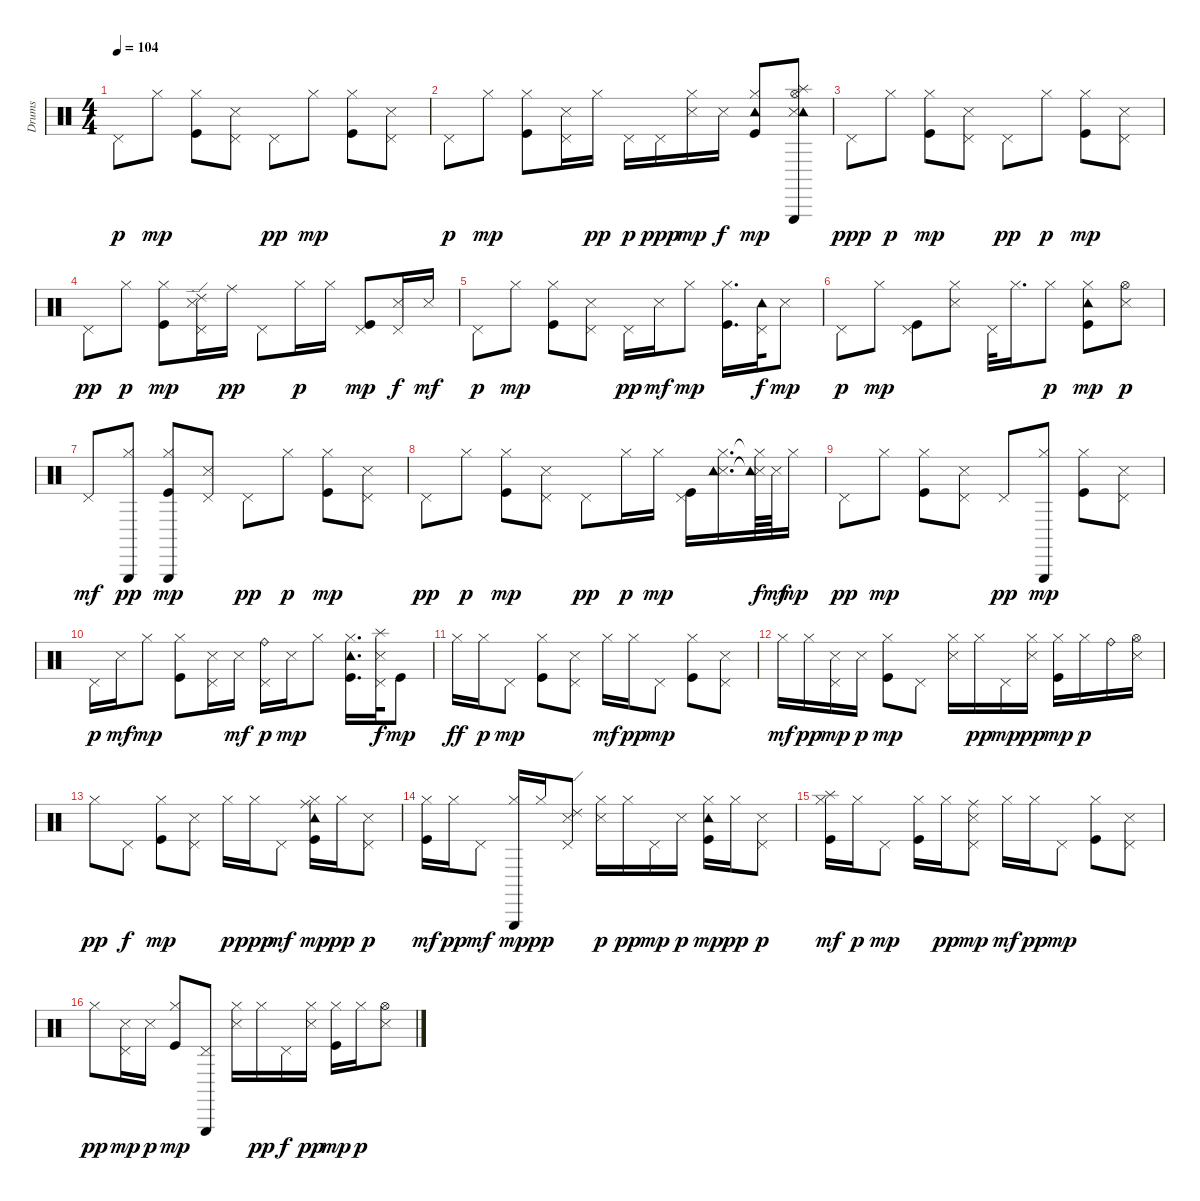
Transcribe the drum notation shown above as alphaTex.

\track ("Drums" "Drums") {instrument percussion}
\staff {score}
\articulation defaults
\ts (4 4)
\tempo 104
\clef neutral
\ks c "Pedal Hi-Hat (hit)".8{dy p} "Hi-Hat (closed)".8{dy mp}
("Hi-Hat (closed)" "Kick (hit)").8 ("Pedal Hi-Hat (hit)" "Snare (side stick) 3").8 "Pedal Hi-Hat (hit)".8{dy pp} "Hi-Hat (closed)".8{dy mp} ("Hi-Hat (closed)" "Kick (hit)").8 ("Pedal Hi-Hat (hit)" "Snare (side stick) 3").8 |
"Pedal Hi-Hat (hit)".8{dy p} "Hi-Hat (closed)".8{dy mp} ("Hi-Hat (closed)" "Kick (hit)").8 ("Pedal Hi-Hat (hit)" "Snare (side stick) 3").16 "Hi-Hat (closed)".16{dy pp} "Pedal Hi-Hat (hit)".16{dy p} "Pedal Hi-Hat (hit)".16{dy ppp} ("Hi-Hat (closed)" "Snare (side stick) 3").16{dy mp} "Snare (side stick) 3".16{dy f} ("Hi-Hat (closed)" "Tambourine (hit)" "Kick (hit)").8{dy mp} ("Hi-Hat (open)" "Splash (hit)" "Snare (side stick) 3" "Tambourine (hit)" "Triangle (hit)").8 |
"Pedal Hi-Hat (hit)".8{dy ppp} "Hi-Hat (closed)".8{dy p} ("Hi-Hat (closed)" "Kick (hit)").8{dy mp} ("Pedal Hi-Hat (hit)" "Snare (side stick) 3").8 "Pedal Hi-Hat (hit)".8{dy pp} "Hi-Hat (closed)".8{dy p} ("Hi-Hat (closed)" "Kick (hit)").8{dy mp} ("Pedal Hi-Hat (hit)" "Snare (side stick) 3").8 |
"Pedal Hi-Hat (hit)".8{dy pp} "Hi-Hat (closed)".8{dy p} ("Hi-Hat (closed)" "Kick (hit)").8{dy mp} ("Pedal Hi-Hat (hit)" "Ride (edge) 2" "Snare (side stick) 3").16 "Ride (middle)".16{dy pp} "Pedal Hi-Hat (hit)".8 "Hi-Hat (closed)".16{dy p} "Hi-Hat (closed)".16 ("Pedal Hi-Hat (hit)" "Kick (hit)").8{dy mp} ("Pedal Hi-Hat (hit)" "Snare (side stick) 3").16{dy f} "Snare (side stick) 3".16{dy mf} |
"Pedal Hi-Hat (hit)".8{dy p} "Hi-Hat (closed)".8{dy mp} ("Hi-Hat (closed)" "Kick (hit)").8 ("Pedal Hi-Hat (hit)" "Snare (side stick) 3").8 "Pedal Hi-Hat (hit)".16{dy pp} "Snare (side stick) 3".16{dy mf} "Hi-Hat (closed)".8{dy mp} ("Hi-Hat (closed)" "Kick (hit)").16{d} ("Pedal Hi-Hat (hit)" "Tambourine (hit)").32{dy f} "Snare (side stick) 3".8{dy mp} |
"Pedal Hi-Hat (hit)".8{dy p} "Hi-Hat (closed)".8{dy mp} ("Pedal Hi-Hat (hit)" "Kick (hit)").8 ("Hi-Hat (closed)" "Snare (side stick) 3").8 "Pedal Hi-Hat (hit)".32 "Hi-Hat (closed)".16{d} "Hi-Hat (closed)".8{dy p} ("Hi-Hat (closed)" "Tambourine (hit)" "Kick (hit)").8{dy mp} ("Hi-Hat (open)" "Snare (side stick) 3").8{dy p} |
"Pedal Hi-Hat (hit)".8{dy mf} ("Hi-Hat (closed)" "Triangle (hit)").8{dy pp} ("Hi-Hat (closed)" "Triangle (hit)" "Kick (hit)").8{dy mp} ("Pedal Hi-Hat (hit)" "Snare (side stick) 3").8 "Pedal Hi-Hat (hit)".8{dy pp} "Hi-Hat (closed)".8{dy p} ("Hi-Hat (closed)" "Kick (hit)").8{dy mp} ("Pedal Hi-Hat (hit)" "Snare (side stick) 3").8 |
"Pedal Hi-Hat (hit)".8{dy pp} "Hi-Hat (closed)".8{dy p} ("Hi-Hat (closed)" "Kick (hit)").8{dy mp} ("Pedal Hi-Hat (hit)" "Snare (side stick) 3").8 "Pedal Hi-Hat (hit)".8{dy pp} "Hi-Hat (closed)".16{dy p} "Hi-Hat (closed)".16{dy mp} ("Pedal Hi-Hat (hit)" "Kick (hit)").16 ("Hi-Hat (closed)" "Snare (side stick) 3" "Tambourine (hit)").16{d} ("Hi-Hat (closed)"{t} "Snare (side stick) 3"{t} "Tambourine (hit)"{t}).64{dy f} "Snare (side stick) 3".64{dy mf} "Hi-Hat (closed)".16{dy mp} |
"Pedal Hi-Hat (hit)".8{dy pp} "Hi-Hat (closed)".8{dy mp} ("Hi-Hat (closed)" "Kick (hit)").8 ("Pedal Hi-Hat (hit)" "Snare (side stick) 3").8 "Pedal Hi-Hat (hit)".8{dy pp} ("Hi-Hat (closed)" "Triangle (hit)").8{dy mp} ("Hi-Hat (closed)" "Kick (hit)").8 ("Pedal Hi-Hat (hit)" "Snare (side stick) 3").8 |
"Pedal Hi-Hat (hit)".16{dy p} "Snare (side stick) 3".16{dy mf} "Hi-Hat (closed)".8{dy mp} ("Hi-Hat (closed)" "Kick (hit)").8 ("Pedal Hi-Hat (hit)" "Snare (side stick) 3").16 "Snare (side stick) 3".16{dy mf} ("Pedal Hi-Hat (hit)" "Ride (bell)").16{dy p} "Snare (side stick) 3".16{dy mp} "Hi-Hat (closed)".8 ("Hi-Hat (closed)" "Tambourine (hit)" "Kick (hit)").16{d} ("Pedal Hi-Hat (hit)" "Splash (hit)" "Snare (side stick) 3").32{dy f} "Kick (hit)".8{dy mp} |
"Hi-Hat (closed)".16{dy ff} "Hi-Hat (closed)".16{dy p} "Pedal Hi-Hat (hit)".8{dy mp} ("Hi-Hat (closed)" "Kick (hit)").8 ("Pedal Hi-Hat (hit)" "Snare (side stick) 3").8 "Hi-Hat (closed)".16{dy mf} "Hi-Hat (closed)".16{dy pp} "Pedal Hi-Hat (hit)".8{dy mp} ("Hi-Hat (closed)" "Kick (hit)").8 ("Pedal Hi-Hat (hit)" "Snare (side stick) 3").8 |
"Hi-Hat (closed)".16{dy mf} "Hi-Hat (closed)".16{dy pp} ("Pedal Hi-Hat (hit)" "Snare (side stick) 3").16{dy mp} "Snare (side stick) 3".16{dy p} ("Hi-Hat (closed)" "Kick (hit)").8{dy mp} "Pedal Hi-Hat (hit)".8 ("Hi-Hat (closed)" "Snare (side stick) 3").16 "Hi-Hat (closed)".16{dy pp} "Pedal Hi-Hat (hit)".16{dy mp} ("Hi-Hat (closed)" "Snare (side stick) 3").16{dy pp} ("Hi-Hat (closed)" "Kick (hit)").16{dy mp} "Hi-Hat (closed)".16{dy p} "Ride (bell)".16 ("Hi-Hat (open)" "Snare (side stick) 3").16 |
"Hi-Hat (closed)".8{dy pp} "Pedal Hi-Hat (hit)".8{dy f} ("Hi-Hat (closed)" "Kick (hit)").8{dy mp} ("Pedal Hi-Hat (hit)" "Snare (side stick) 3").8 "Hi-Hat (closed)".16{dy p} "Hi-Hat (closed)".16{dy ppp} "Pedal Hi-Hat (hit)".8{dy mf} ("Hi-Hat (closed)" "Ride (middle)" "Tambourine (hit)" "Kick (hit)").16{dy mp} "Hi-Hat (closed)".16{dy pp} ("Pedal Hi-Hat (hit)" "Snare (side stick) 3").8{dy p} |
("Hi-Hat (closed)" "Kick (hit)").16{dy mf} "Hi-Hat (closed)".16{dy pp} "Pedal Hi-Hat (hit)".8{dy mf} ("Hi-Hat (closed)" "Triangle (hit)").16{dy mp} "Hi-Hat (closed)".16{dy pp} ("Pedal Hi-Hat (hit)" "Ride (edge) 2" "Snare (side stick) 3").8 ("Hi-Hat (closed)" "Snare (side stick) 3").16{dy p} "Hi-Hat (closed)".16{dy pp} "Pedal Hi-Hat (hit)".16{dy mp} "Snare (side stick) 3".16{dy p} ("Hi-Hat (closed)" "Tambourine (hit)" "Kick (hit)").16{dy mp} "Hi-Hat (closed)".16{dy pp} ("Pedal Hi-Hat (hit)" "Snare (side stick) 3").8{dy p} |
("Hi-Hat (closed)" "Splash (hit)" "Kick (hit)").16{dy mf} "Hi-Hat (closed)".16{dy p} "Pedal Hi-Hat (hit)".8{dy mp} ("Hi-Hat (closed)" "Kick (hit)").16 "Hi-Hat (closed)".16{dy pp} ("Pedal Hi-Hat (hit)" "Ride (middle)" "Snare (side stick) 3").8{dy mp} "Hi-Hat (closed)".16{dy mf} "Hi-Hat (closed)".16{dy pp} "Pedal Hi-Hat (hit)".8{dy mp} ("Hi-Hat (closed)" "Kick (hit)").8 ("Pedal Hi-Hat (hit)" "Snare (side stick) 3").8 |
"Hi-Hat (closed)".8{dy pp} ("Pedal Hi-Hat (hit)" "Snare (side stick) 3").16{dy mp} "Snare (side stick) 3".16{dy p} ("Hi-Hat (closed)" "Kick (hit)").8{dy mp} ("Pedal Hi-Hat (hit)" "Triangle (hit)").8 ("Hi-Hat (closed)" "Snare (side stick) 3").16 "Hi-Hat (closed)".16{dy pp} "Pedal Hi-Hat (hit)".16{dy f} ("Hi-Hat (closed)" "Snare (side stick) 3").16{dy pp} ("Hi-Hat (closed)" "Kick (hit)").16{dy mp} "Hi-Hat (closed)".16{dy p} ("Hi-Hat (open)" "Snare (side stick) 3").8
